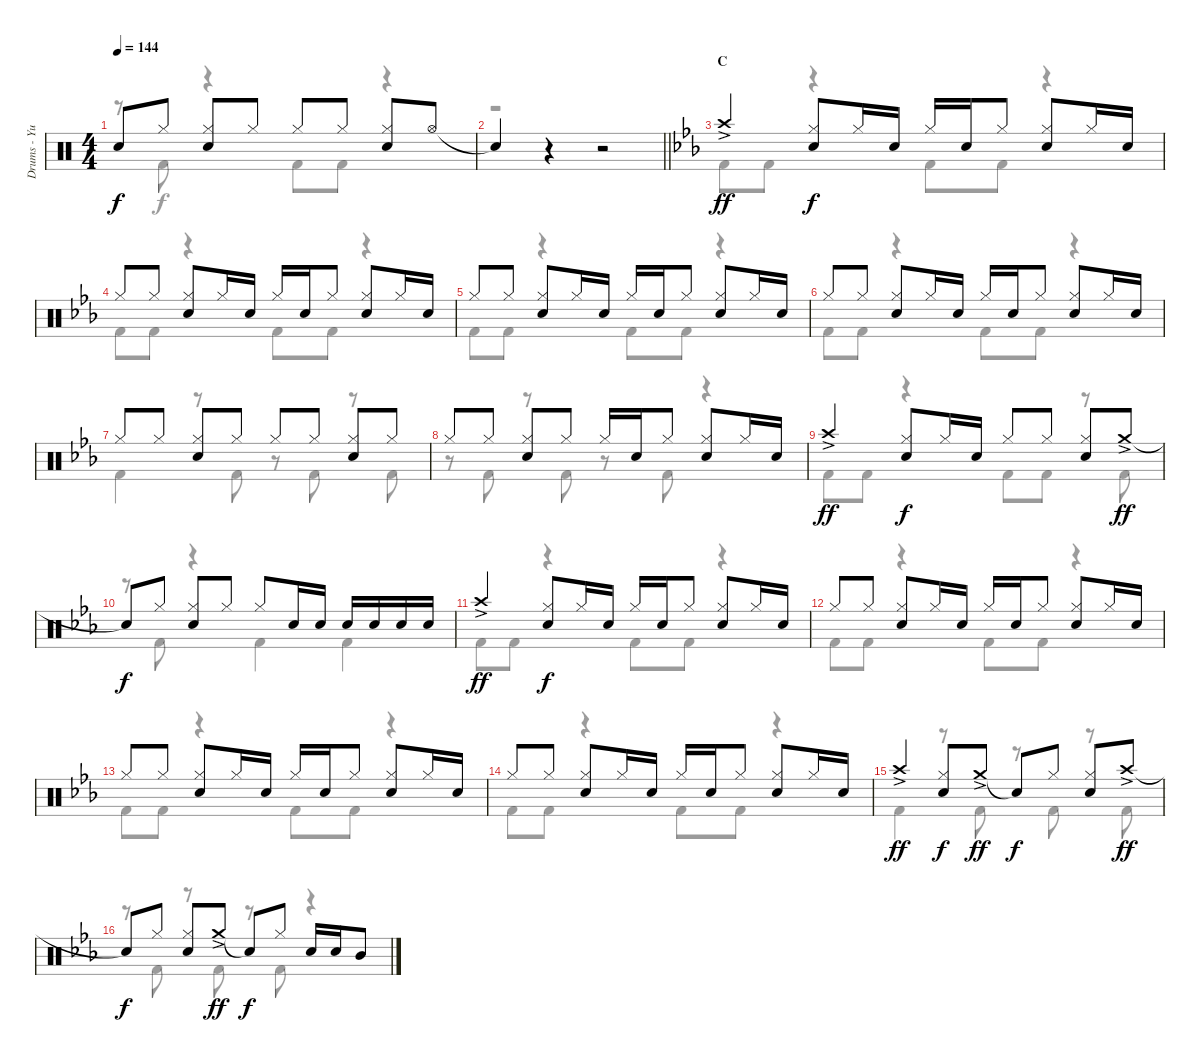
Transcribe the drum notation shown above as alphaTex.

\track ("Drums - Yuuya" "Drums - Yu") {instrument percussion}
\staff {score}
\articulation defaults
\voice
\ts (4 4)
\tempo 144
\clef neutral
\ks c "Snare (hit)"{t}.8{dy f} "Hi-Hat (closed)".8
("Hi-Hat (closed)" "Snare (hit) 2").8 "Hi-Hat (closed)".8 "Hi-Hat (closed)".8 "Hi-Hat (closed)".8 ("Hi-Hat (closed)" "Snare (hit) 2").8 "Hi-Hat (open)".8 |
\barLineRight lightlight "Snare (hit)"{t}.4
r.4 r.2 |
\section ("" "C")
\ks eb "Crash high (hit)"{ac}.4{dy ff}
("Hi-Hat (closed)" "Snare (hit) 2").8{dy f} "Hi-Hat (closed)".16 "Snare (hit) 2".16 "Hi-Hat (closed)".16 "Snare (hit) 2".16 "Hi-Hat (closed)".8 ("Hi-Hat (closed)" "Snare (hit) 2").8 "Hi-Hat (closed)".16 "Snare (hit) 2".16 |
"Hi-Hat (closed)".8 "Hi-Hat (closed)".8 ("Hi-Hat (closed)" "Snare (hit) 2").8 "Hi-Hat (closed)".16 "Snare (hit) 2".16 "Hi-Hat (closed)".16 "Snare (hit) 2".16 "Hi-Hat (closed)".8 ("Hi-Hat (closed)" "Snare (hit) 2").8 "Hi-Hat (closed)".16 "Snare (hit) 2".16 |
"Hi-Hat (closed)".8 "Hi-Hat (closed)".8 ("Hi-Hat (closed)" "Snare (hit) 2").8 "Hi-Hat (closed)".16 "Snare (hit) 2".16 "Hi-Hat (closed)".16 "Snare (hit) 2".16 "Hi-Hat (closed)".8 ("Hi-Hat (closed)" "Snare (hit) 2").8 "Hi-Hat (closed)".16 "Snare (hit) 2".16 |
"Hi-Hat (closed)".8 "Hi-Hat (closed)".8 ("Hi-Hat (closed)" "Snare (hit) 2").8 "Hi-Hat (closed)".16 "Snare (hit) 2".16 "Hi-Hat (closed)".16 "Snare (hit) 2".16 "Hi-Hat (closed)".8 ("Hi-Hat (closed)" "Snare (hit) 2").8 "Hi-Hat (closed)".16 "Snare (hit) 2".16 |
"Hi-Hat (closed)".8 "Hi-Hat (closed)".8 ("Hi-Hat (closed)" "Snare (hit) 2").8 "Hi-Hat (closed)".8 "Hi-Hat (closed)".8 "Hi-Hat (closed)".8 ("Hi-Hat (closed)" "Snare (hit) 2").8 "Hi-Hat (closed)".8 |
"Hi-Hat (closed)".8 "Hi-Hat (closed)".8 ("Hi-Hat (closed)" "Snare (hit) 2").8 "Hi-Hat (closed)".8 "Hi-Hat (closed)".16 "Snare (hit) 2".16 "Hi-Hat (closed)".8 ("Hi-Hat (closed)" "Snare (hit) 2").8 "Hi-Hat (closed)".16 "Snare (hit) 2".16 |
"Crash high (hit)"{ac}.4{dy ff} ("Hi-Hat (closed)" "Snare (hit) 2").8{dy f} "Hi-Hat (closed)".16 "Snare (hit) 2".16 "Hi-Hat (closed)".8 "Hi-Hat (closed)".8 ("Hi-Hat (closed)" "Snare (hit) 2").8 "Crash medium (hit)"{ac}.8{dy ff} |
"Snare (hit)"{t}.8{dy f} "Hi-Hat (closed)".8 ("Hi-Hat (closed)" "Snare (hit) 2").8 "Hi-Hat (closed)".8 "Hi-Hat (closed)".8 "Snare (hit) 2".16 "Snare (hit) 2".16 "Snare (hit) 2".16 "Snare (hit) 2".16 "Snare (hit) 2".16 "Snare (hit) 2".16 |
"Crash high (hit)"{ac}.4{dy ff} ("Hi-Hat (closed)" "Snare (hit) 2").8{dy f} "Hi-Hat (closed)".16 "Snare (hit) 2".16 "Hi-Hat (closed)".16 "Snare (hit) 2".16 "Hi-Hat (closed)".8 ("Hi-Hat (closed)" "Snare (hit) 2").8 "Hi-Hat (closed)".16 "Snare (hit) 2".16 |
"Hi-Hat (closed)".8 "Hi-Hat (closed)".8 ("Hi-Hat (closed)" "Snare (hit) 2").8 "Hi-Hat (closed)".16 "Snare (hit) 2".16 "Hi-Hat (closed)".16 "Snare (hit) 2".16 "Hi-Hat (closed)".8 ("Hi-Hat (closed)" "Snare (hit) 2").8 "Hi-Hat (closed)".16 "Snare (hit) 2".16 |
"Hi-Hat (closed)".8 "Hi-Hat (closed)".8 ("Hi-Hat (closed)" "Snare (hit) 2").8 "Hi-Hat (closed)".16 "Snare (hit) 2".16 "Hi-Hat (closed)".16 "Snare (hit) 2".16 "Hi-Hat (closed)".8 ("Hi-Hat (closed)" "Snare (hit) 2").8 "Hi-Hat (closed)".16 "Snare (hit) 2".16 |
"Hi-Hat (closed)".8 "Hi-Hat (closed)".8 ("Hi-Hat (closed)" "Snare (hit) 2").8 "Hi-Hat (closed)".16 "Snare (hit) 2".16 "Hi-Hat (closed)".16 "Snare (hit) 2".16 "Hi-Hat (closed)".8 ("Hi-Hat (closed)" "Snare (hit) 2").8 "Hi-Hat (closed)".16 "Snare (hit) 2".16 |
"Crash high (hit)"{ac}.4{dy ff} ("Hi-Hat (closed)" "Snare (hit) 2").8{dy f} "Crash medium (hit)"{ac}.8{dy ff} "Snare (hit)"{t}.8{dy f} "Hi-Hat (closed)".8 ("Hi-Hat (closed)" "Snare (hit) 2").8 "Crash high (hit)"{ac}.8{dy ff} |
"Snare (hit)"{t}.8{dy f} "Hi-Hat (closed)".8 ("Hi-Hat (closed)" "Snare (hit) 2").8 "Crash medium (hit)"{ac}.8{dy ff} "Snare (hit)"{t}.8{dy f} "Hi-Hat (closed)".8 "Snare (hit) 2".16 "Snare (hit) 2".16 "Mid Tom (hit)".8
\voice
\clef neutral
\ottava regular
\simile none
\ks c
r.8{dy f} "Kick (hit) 2".8 r.4 "Kick (hit) 2".8 "Kick (hit) 2".8 r.4 |
\barLineRight lightlight
r.1 |
\ks eb "Kick (hit) 2".8 "Kick (hit) 2".8
r.4 "Kick (hit) 2".8 "Kick (hit) 2".8 r.4 |
"Kick (hit) 2".8 "Kick (hit) 2".8 r.4 "Kick (hit) 2".8 "Kick (hit) 2".8 r.4 |
"Kick (hit) 2".8 "Kick (hit) 2".8 r.4 "Kick (hit) 2".8 "Kick (hit) 2".8 r.4 |
"Kick (hit) 2".8 "Kick (hit) 2".8 r.4 "Kick (hit) 2".8 "Kick (hit) 2".8 r.4 |
"Kick (hit) 2".4 r.8 "Kick (hit) 2".8 r.8 "Kick (hit) 2".8 r.8 "Kick (hit) 2".8 |
r.8 "Kick (hit) 2".8 r.8 "Kick (hit) 2".8 r.8 "Kick (hit) 2".8 r.4 |
"Kick (hit) 2".8 "Kick (hit) 2".8 r.4 "Kick (hit) 2".8 "Kick (hit) 2".8 r.8 "Kick (hit) 2".8 |
r.8 "Kick (hit) 2".8 r.4 "Kick (hit) 2".4 "Kick (hit) 2".4 |
"Kick (hit) 2".8 "Kick (hit) 2".8 r.4 "Kick (hit) 2".8 "Kick (hit) 2".8 r.4 |
"Kick (hit) 2".8 "Kick (hit) 2".8 r.4 "Kick (hit) 2".8 "Kick (hit) 2".8 r.4 |
"Kick (hit) 2".8 "Kick (hit) 2".8 r.4 "Kick (hit) 2".8 "Kick (hit) 2".8 r.4 |
"Kick (hit) 2".8 "Kick (hit) 2".8 r.4 "Kick (hit) 2".8 "Kick (hit) 2".8 r.4 |
"Kick (hit) 2".4 r.8 "Kick (hit) 2".8 r.8 "Kick (hit) 2".8 r.8 "Kick (hit) 2".8 |
r.8 "Kick (hit) 2".8 r.8 "Kick (hit) 2".8 r.8 "Kick (hit) 2".8 r.4
